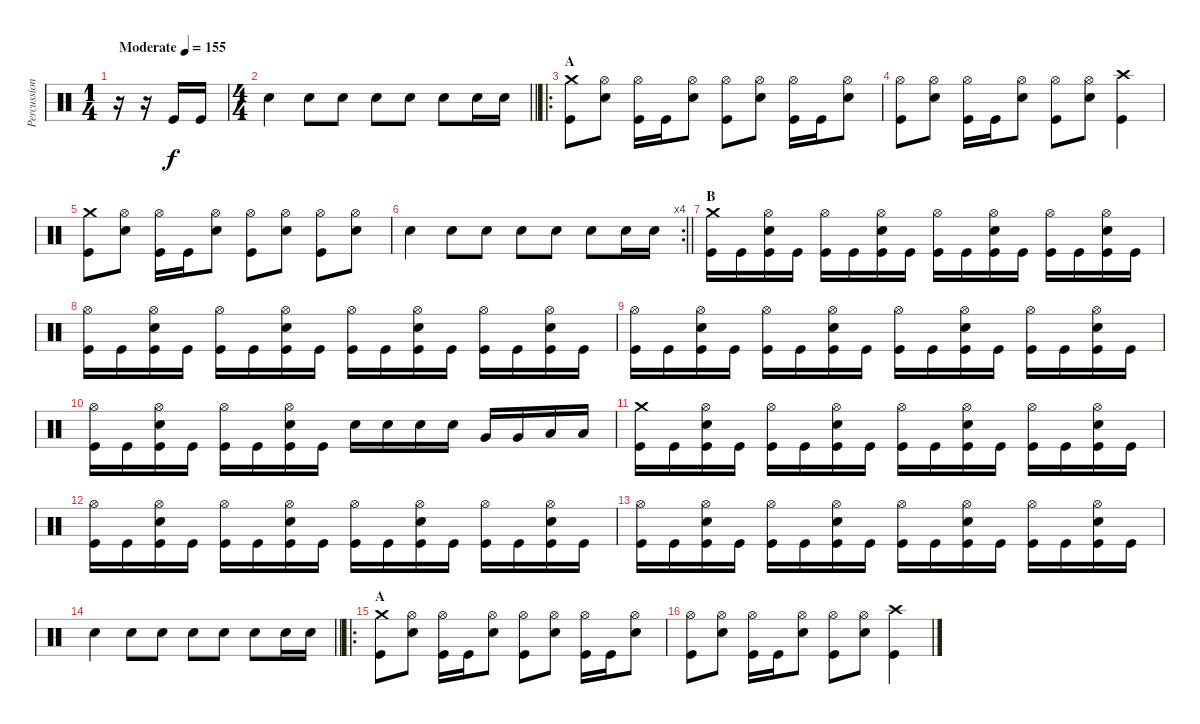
\track ("Percussion" "Percussion") {instrument percussion}
\staff {score}
\articulation defaults
\ts (1 4)
\tempo (155 "Moderate")
\clef neutral
\ks c
r.16{dy f} r.16 "Kick (hit)".16 "Kick (hit)".16 |
\ts (4 4)
\barLineRight lightlight "Snare (hit) 2".4 "Snare (hit) 2".8 "Snare (hit) 2".8 "Snare (hit) 2".8 "Snare (hit) 2".8 "Snare (hit) 2".8 "Snare (hit) 2".16 "Snare (hit) 2".16
|
\ro
\section ("" "A")
("Kick (hit)" "Crash medium (hit)").8 ("Snare (hit) 2" "Hi-Hat (open)").8 ("Kick (hit)" "Hi-Hat (open)").16 "Kick (hit)".16 ("Snare (hit) 2" "Hi-Hat (open)").8 ("Kick (hit)" "Hi-Hat (open)").8 ("Snare (hit) 2" "Hi-Hat (open)").8 ("Kick (hit)" "Hi-Hat (open)").16 "Kick (hit)".16 ("Snare (hit) 2" "Hi-Hat (open)").8 |
("Kick (hit)" "Hi-Hat (open)").8 ("Snare (hit) 2" "Hi-Hat (open)").8 ("Kick (hit)" "Hi-Hat (open)").16 "Kick (hit)".16 ("Snare (hit) 2" "Hi-Hat (open)").8 ("Kick (hit)" "Hi-Hat (open)").8 ("Snare (hit) 2" "Hi-Hat (open)").8 ("Kick (hit)" "Crash high (hit)").4 |
("Kick (hit)" "Crash medium (hit)").8 ("Snare (hit) 2" "Hi-Hat (open)").8 ("Kick (hit)" "Hi-Hat (open)").16 "Kick (hit)".16 ("Snare (hit) 2" "Hi-Hat (open)").8 ("Kick (hit)" "Hi-Hat (open)").8 ("Snare (hit) 2" "Hi-Hat (open)").8 ("Kick (hit)" "Hi-Hat (open)").8 ("Snare (hit) 2" "Hi-Hat (open)").8 |
\rc 4
\barLineRight lightlight "Snare (hit) 2".4 "Snare (hit) 2".8 "Snare (hit) 2".8 "Snare (hit) 2".8 "Snare (hit) 2".8 "Snare (hit) 2".8 "Snare (hit) 2".16 "Snare (hit) 2".16
|
\section ("" "B")
("Kick (hit)" "Crash medium (hit)").16 "Kick (hit)".16 ("Kick (hit)" "Snare (hit) 2" "Hi-Hat (open)").16 "Kick (hit)".16 ("Kick (hit)" "Hi-Hat (open)").16 "Kick (hit)".16 ("Kick (hit)" "Snare (hit) 2" "Hi-Hat (open)").16 "Kick (hit)".16 ("Kick (hit)" "Hi-Hat (open)").16 "Kick (hit)".16 ("Kick (hit)" "Snare (hit) 2" "Hi-Hat (open)").16 "Kick (hit)".16 ("Kick (hit)" "Hi-Hat (open)").16 "Kick (hit)".16 ("Kick (hit)" "Snare (hit) 2" "Hi-Hat (open)").16 "Kick (hit)".16 |
("Kick (hit)" "Hi-Hat (open)").16 "Kick (hit)".16 ("Kick (hit)" "Snare (hit) 2" "Hi-Hat (open)").16 "Kick (hit)".16 ("Kick (hit)" "Hi-Hat (open)").16 "Kick (hit)".16 ("Kick (hit)" "Snare (hit) 2" "Hi-Hat (open)").16 "Kick (hit)".16 ("Kick (hit)" "Hi-Hat (open)").16 "Kick (hit)".16 ("Kick (hit)" "Snare (hit) 2" "Hi-Hat (open)").16 "Kick (hit)".16 ("Kick (hit)" "Hi-Hat (open)").16 "Kick (hit)".16 ("Kick (hit)" "Snare (hit) 2" "Hi-Hat (open)").16 "Kick (hit)".16 |
("Kick (hit)" "Hi-Hat (open)").16 "Kick (hit)".16 ("Kick (hit)" "Snare (hit) 2" "Hi-Hat (open)").16 "Kick (hit)".16 ("Kick (hit)" "Hi-Hat (open)").16 "Kick (hit)".16 ("Kick (hit)" "Snare (hit) 2" "Hi-Hat (open)").16 "Kick (hit)".16 ("Kick (hit)" "Hi-Hat (open)").16 "Kick (hit)".16 ("Kick (hit)" "Snare (hit) 2" "Hi-Hat (open)").16 "Kick (hit)".16 ("Kick (hit)" "Hi-Hat (open)").16 "Kick (hit)".16 ("Kick (hit)" "Snare (hit) 2" "Hi-Hat (open)").16 "Kick (hit)".16 |
("Kick (hit)" "Hi-Hat (open)").16 "Kick (hit)".16 ("Kick (hit)" "Snare (hit) 2" "Hi-Hat (open)").16 "Kick (hit)".16 ("Kick (hit)" "Hi-Hat (open)").16 "Kick (hit)".16 ("Kick (hit)" "Snare (hit) 2" "Hi-Hat (open)").16 "Kick (hit)".16 "Snare (hit) 2".16 "Snare (hit) 2".16 "Snare (hit) 2".16 "Snare (hit) 2".16 "Very Low Tom (hit)".16 "Very Low Tom (hit)".16 "Low Floor Tom (hit)".16 "Low Floor Tom (hit)".16 |
("Kick (hit)" "Crash medium (hit)").16 "Kick (hit)".16 ("Kick (hit)" "Snare (hit) 2" "Hi-Hat (open)").16 "Kick (hit)".16 ("Kick (hit)" "Hi-Hat (open)").16 "Kick (hit)".16 ("Kick (hit)" "Snare (hit) 2" "Hi-Hat (open)").16 "Kick (hit)".16 ("Kick (hit)" "Hi-Hat (open)").16 "Kick (hit)".16 ("Kick (hit)" "Snare (hit) 2" "Hi-Hat (open)").16 "Kick (hit)".16 ("Kick (hit)" "Hi-Hat (open)").16 "Kick (hit)".16 ("Kick (hit)" "Snare (hit) 2" "Hi-Hat (open)").16 "Kick (hit)".16 |
("Kick (hit)" "Hi-Hat (open)").16 "Kick (hit)".16 ("Kick (hit)" "Snare (hit) 2" "Hi-Hat (open)").16 "Kick (hit)".16 ("Kick (hit)" "Hi-Hat (open)").16 "Kick (hit)".16 ("Kick (hit)" "Snare (hit) 2" "Hi-Hat (open)").16 "Kick (hit)".16 ("Kick (hit)" "Hi-Hat (open)").16 "Kick (hit)".16 ("Kick (hit)" "Snare (hit) 2" "Hi-Hat (open)").16 "Kick (hit)".16 ("Kick (hit)" "Hi-Hat (open)").16 "Kick (hit)".16 ("Kick (hit)" "Snare (hit) 2" "Hi-Hat (open)").16 "Kick (hit)".16 |
("Kick (hit)" "Hi-Hat (open)").16 "Kick (hit)".16 ("Kick (hit)" "Snare (hit) 2" "Hi-Hat (open)").16 "Kick (hit)".16 ("Kick (hit)" "Hi-Hat (open)").16 "Kick (hit)".16 ("Kick (hit)" "Snare (hit) 2" "Hi-Hat (open)").16 "Kick (hit)".16 ("Kick (hit)" "Hi-Hat (open)").16 "Kick (hit)".16 ("Kick (hit)" "Snare (hit) 2" "Hi-Hat (open)").16 "Kick (hit)".16 ("Kick (hit)" "Hi-Hat (open)").16 "Kick (hit)".16 ("Kick (hit)" "Snare (hit) 2" "Hi-Hat (open)").16 "Kick (hit)".16 |
\barLineRight lightlight "Snare (hit) 2".4 "Snare (hit) 2".8 "Snare (hit) 2".8 "Snare (hit) 2".8 "Snare (hit) 2".8 "Snare (hit) 2".8 "Snare (hit) 2".16 "Snare (hit) 2".16
|
\ro
\section ("" "A")
("Kick (hit)" "Crash medium (hit)").8 ("Snare (hit) 2" "Hi-Hat (open)").8 ("Kick (hit)" "Hi-Hat (open)").16 "Kick (hit)".16 ("Snare (hit) 2" "Hi-Hat (open)").8 ("Kick (hit)" "Hi-Hat (open)").8 ("Snare (hit) 2" "Hi-Hat (open)").8 ("Kick (hit)" "Hi-Hat (open)").16 "Kick (hit)".16 ("Snare (hit) 2" "Hi-Hat (open)").8 |
("Kick (hit)" "Hi-Hat (open)").8 ("Snare (hit) 2" "Hi-Hat (open)").8 ("Kick (hit)" "Hi-Hat (open)").16 "Kick (hit)".16 ("Snare (hit) 2" "Hi-Hat (open)").8 ("Kick (hit)" "Hi-Hat (open)").8 ("Snare (hit) 2" "Hi-Hat (open)").8 ("Kick (hit)" "Crash high (hit)").4
